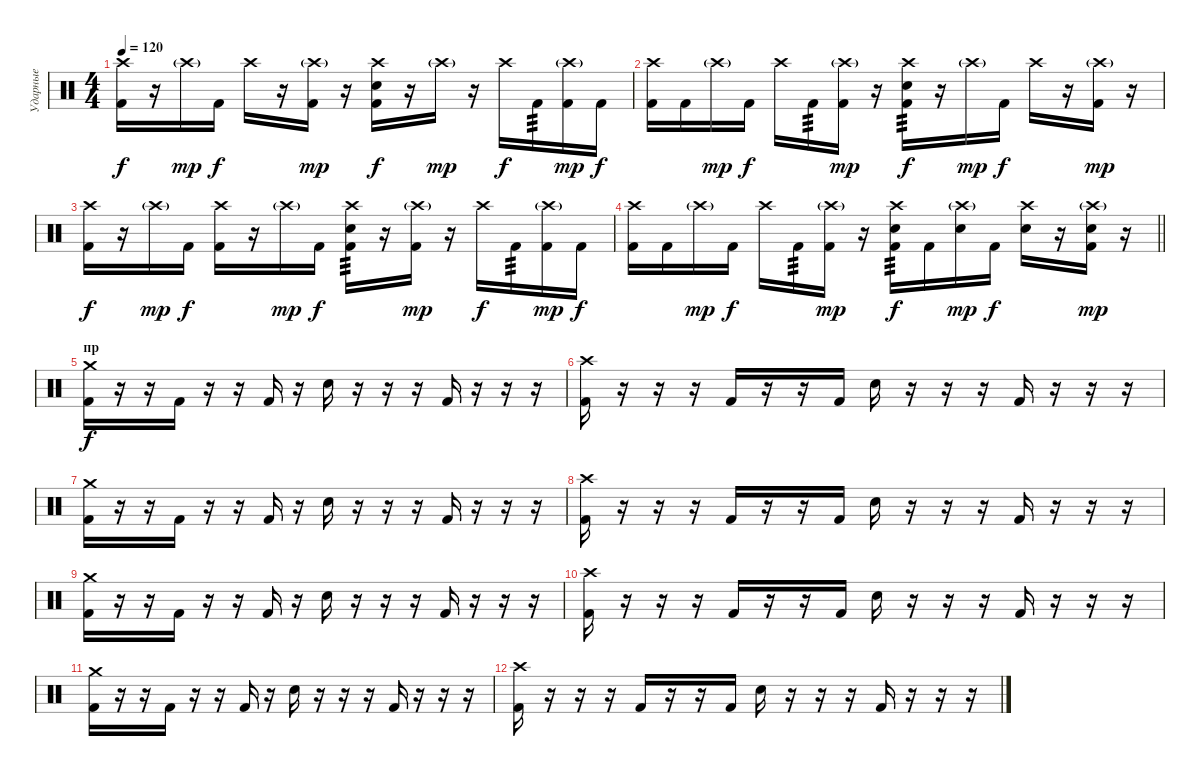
\track ("Ударные" "Ударные") {instrument percussion}
\staff {score}
\articulation defaults
\ts (4 4)
\tempo 120
\clef neutral
\ks c
("Crash high (hit)" "Kick (hit) 2").16{dy f} r.16 "Crash high (hit)"{g}.16{dy mp} "Kick (hit) 2".16{dy f} "Crash high (hit)".16 r.16 ("Crash high (hit)"{g} "Kick (hit) 2").16{dy mp} r.16 ("Crash high (hit)" "Snare (hit) 2" "Kick (hit) 2").16{dy f} r.16 "Crash high (hit)"{g}.16{dy mp} r.16 "Crash high (hit)".16{dy f} "Kick (hit) 2".16{tp 3} ("Crash high (hit)"{g} "Kick (hit) 2").16{dy mp} "Kick (hit) 2".16{dy f} |
("Crash high (hit)" "Kick (hit) 2").16 "Kick (hit) 2".16 "Crash high (hit)"{g}.16{dy mp} "Kick (hit) 2".16{dy f} "Crash high (hit)".16 "Kick (hit) 2".16{tp 3} ("Crash high (hit)"{g} "Kick (hit) 2").16{dy mp} r.16 ("Crash high (hit)" "Snare (hit) 2" "Kick (hit) 2").16{tp 3 dy f} r.16 "Crash high (hit)"{g}.16{dy mp} "Kick (hit) 2".16{dy f} "Crash high (hit)".16 r.16 ("Crash high (hit)"{g} "Kick (hit) 2").16{dy mp} r.16 |
("Crash high (hit)" "Kick (hit) 2").16{dy f} r.16 "Crash high (hit)"{g}.16{dy mp} "Kick (hit) 2".16{dy f} ("Crash high (hit)" "Kick (hit) 2").16 r.16 "Crash high (hit)"{g}.16{dy mp} "Kick (hit) 2".16{dy f} ("Crash high (hit)" "Snare (hit) 2" "Kick (hit) 2").16{tp 3} r.16 ("Crash high (hit)"{g} "Kick (hit) 2").16{dy mp} r.16 "Crash high (hit)".16{dy f} "Kick (hit) 2".16{tp 3} ("Crash high (hit)"{g} "Kick (hit) 2").16{dy mp} "Kick (hit) 2".16{dy f} |
\barLineRight lightlight
("Crash high (hit)" "Kick (hit) 2").16 "Kick (hit) 2".16 "Crash high (hit)"{g}.16{dy mp} "Kick (hit) 2".16{dy f} "Crash high (hit)".16 "Kick (hit) 2".16{tp 3} ("Crash high (hit)"{g} "Kick (hit) 2").16{dy mp} r.16 ("Crash high (hit)" "Snare (hit) 2" "Kick (hit) 2").16{tp 3 dy f} "Kick (hit) 2".16 ("Crash high (hit)"{g} "Snare (hit) 2").16{dy mp} "Kick (hit) 2".16{dy f} ("Crash high (hit)" "Snare (hit) 2").16 r.16 ("Crash high (hit)"{g} "Snare (hit) 2" "Kick (hit) 2").16{dy mp} r.16 |
\section ("" "пр")
("Crash medium (hit)" "Kick (hit) 2").16{dy f} r.16 r.16 "Kick (hit) 2".16 r.16 r.16 "Kick (hit) 2".16 r.16 "Snare (hit) 2".16 r.16 r.16 r.16 "Kick (hit) 2".16 r.16 r.16 r.16 |
("Crash high (hit)" "Kick (hit) 2").16 r.16 r.16 r.16 "Kick (hit) 2".16 r.16 r.16 "Kick (hit) 2".16 "Snare (hit) 2".16 r.16 r.16 r.16 "Kick (hit) 2".16 r.16 r.16 r.16 |
("Crash medium (hit)" "Kick (hit) 2").16 r.16 r.16 "Kick (hit) 2".16 r.16 r.16 "Kick (hit) 2".16 r.16 "Snare (hit) 2".16 r.16 r.16 r.16 "Kick (hit) 2".16 r.16 r.16 r.16 |
("Crash high (hit)" "Kick (hit) 2").16 r.16 r.16 r.16 "Kick (hit) 2".16 r.16 r.16 "Kick (hit) 2".16 "Snare (hit) 2".16 r.16 r.16 r.16 "Kick (hit) 2".16 r.16 r.16 r.16 |
("Crash medium (hit)" "Kick (hit) 2").16 r.16 r.16 "Kick (hit) 2".16 r.16 r.16 "Kick (hit) 2".16 r.16 "Snare (hit) 2".16 r.16 r.16 r.16 "Kick (hit) 2".16 r.16 r.16 r.16 |
("Crash high (hit)" "Kick (hit) 2").16 r.16 r.16 r.16 "Kick (hit) 2".16 r.16 r.16 "Kick (hit) 2".16 "Snare (hit) 2".16 r.16 r.16 r.16 "Kick (hit) 2".16 r.16 r.16 r.16 |
("Crash medium (hit)" "Kick (hit) 2").16 r.16 r.16 "Kick (hit) 2".16 r.16 r.16 "Kick (hit) 2".16 r.16 "Snare (hit) 2".16 r.16 r.16 r.16 "Kick (hit) 2".16 r.16 r.16 r.16 |
("Crash high (hit)" "Kick (hit) 2").16 r.16 r.16 r.16 "Kick (hit) 2".16 r.16 r.16 "Kick (hit) 2".16 "Snare (hit) 2".16 r.16 r.16 r.16 "Kick (hit) 2".16 r.16 r.16 r.16
